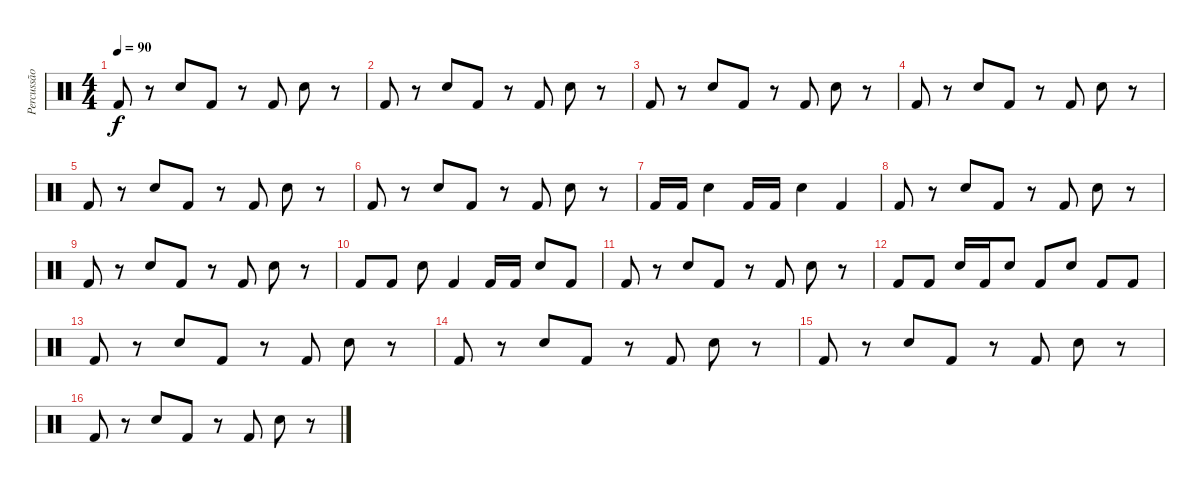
\track ("Percussão" "Percussão") {instrument percussion}
\staff {score}
\articulation defaults
\ts (4 4)
\tempo 90
\clef neutral
\ks c "Kick (hit) 2".8{dy f}
r.8 "Electric Snare (hit)".8 "Kick (hit) 2".8 r.8 "Kick (hit) 2".8 "Electric Snare (hit)".8 r.8 |
"Kick (hit) 2".8 r.8 "Electric Snare (hit)".8 "Kick (hit) 2".8 r.8 "Kick (hit) 2".8 "Electric Snare (hit)".8 r.8 |
"Kick (hit) 2".8 r.8 "Electric Snare (hit)".8 "Kick (hit) 2".8 r.8 "Kick (hit) 2".8 "Electric Snare (hit)".8 r.8 |
"Kick (hit) 2".8 r.8 "Electric Snare (hit)".8 "Kick (hit) 2".8 r.8 "Kick (hit) 2".8 "Electric Snare (hit)".8 r.8 |
"Kick (hit) 2".8 r.8 "Electric Snare (hit)".8 "Kick (hit) 2".8 r.8 "Kick (hit) 2".8 "Electric Snare (hit)".8 r.8 |
"Kick (hit) 2".8 r.8 "Electric Snare (hit)".8 "Kick (hit) 2".8 r.8 "Kick (hit) 2".8 "Electric Snare (hit)".8 r.8 |
"Kick (hit) 2".16 "Kick (hit) 2".16 "Electric Snare (hit)".4 "Kick (hit) 2".16 "Kick (hit) 2".16 "Electric Snare (hit)".4 "Kick (hit) 2".4 |
"Kick (hit) 2".8 r.8 "Electric Snare (hit)".8 "Kick (hit) 2".8 r.8 "Kick (hit) 2".8 "Electric Snare (hit)".8 r.8 |
"Kick (hit) 2".8 r.8 "Electric Snare (hit)".8 "Kick (hit) 2".8 r.8 "Kick (hit) 2".8 "Electric Snare (hit)".8 r.8 |
"Kick (hit) 2".8 "Kick (hit) 2".8 "Electric Snare (hit)".8 "Kick (hit) 2".4 "Kick (hit) 2".16 "Kick (hit) 2".16 "Electric Snare (hit)".8 "Kick (hit) 2".8 |
"Kick (hit) 2".8 r.8 "Electric Snare (hit)".8 "Kick (hit) 2".8 r.8 "Kick (hit) 2".8 "Electric Snare (hit)".8 r.8 |
"Kick (hit) 2".8 "Kick (hit) 2".8 "Electric Snare (hit)".16 "Kick (hit) 2".16 "Electric Snare (hit)".8 "Kick (hit) 2".8 "Electric Snare (hit)".8 "Kick (hit) 2".8 "Kick (hit) 2".8 |
"Kick (hit) 2".8 r.8 "Electric Snare (hit)".8 "Kick (hit) 2".8 r.8 "Kick (hit) 2".8 "Electric Snare (hit)".8 r.8 |
"Kick (hit) 2".8 r.8 "Electric Snare (hit)".8 "Kick (hit) 2".8 r.8 "Kick (hit) 2".8 "Electric Snare (hit)".8 r.8 |
"Kick (hit) 2".8 r.8 "Electric Snare (hit)".8 "Kick (hit) 2".8 r.8 "Kick (hit) 2".8 "Electric Snare (hit)".8 r.8 |
"Kick (hit) 2".8 r.8 "Electric Snare (hit)".8 "Kick (hit) 2".8 r.8 "Kick (hit) 2".8 "Electric Snare (hit)".8 r.8
